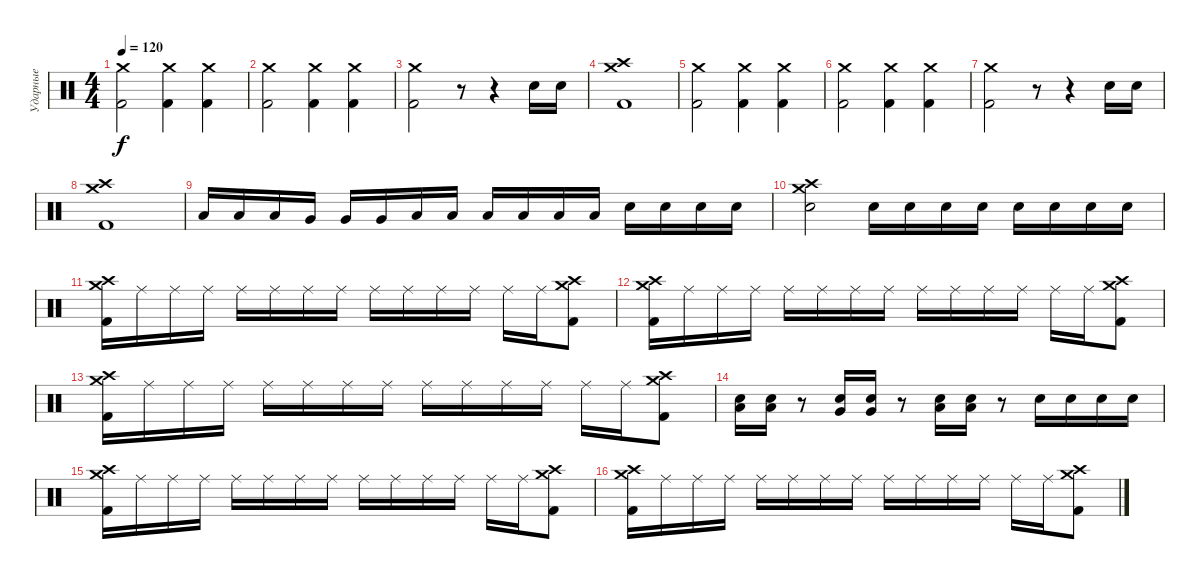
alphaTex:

\track ("Ударные" "Ударные") {instrument percussion}
\staff {score}
\articulation defaults
\ts (4 4)
\tempo 120
\clef neutral
\ks c
("Kick (hit) 2" "Crash medium (hit)").2{dy f} ("Kick (hit) 2" "Crash medium (hit)").4 ("Kick (hit) 2" "Crash medium (hit)").4 |
("Kick (hit) 2" "Crash medium (hit)").2 ("Kick (hit) 2" "Crash medium (hit)").4 ("Kick (hit) 2" "Crash medium (hit)").4 |
("Kick (hit) 2" "Crash medium (hit)").2 r.8 r.4 "Snare (hit) 2".16 "Snare (hit) 2".16 |
("Kick (hit) 2" "Crash medium (hit)" "Crash high (hit)").1 |
("Kick (hit) 2" "Crash medium (hit)").2 ("Kick (hit) 2" "Crash medium (hit)").4 ("Kick (hit) 2" "Crash medium (hit)").4 |
("Kick (hit) 2" "Crash medium (hit)").2 ("Kick (hit) 2" "Crash medium (hit)").4 ("Kick (hit) 2" "Crash medium (hit)").4 |
("Kick (hit) 2" "Crash medium (hit)").2 r.8 r.4 "Snare (hit) 2".16 "Snare (hit) 2".16 |
("Kick (hit) 2" "Crash medium (hit)" "Crash high (hit)").1 |
"Low Floor Tom (hit)".16 "Low Floor Tom (hit)".16 "Low Floor Tom (hit)".16 "Very Low Tom (hit)".16 "Very Low Tom (hit)".16 "Very Low Tom (hit)".16 "Low Floor Tom (hit)".16 "Low Floor Tom (hit)".16 "Low Floor Tom (hit)".16 "Low Tom (hit)".16 "Low Tom (hit)".16 "Low Tom (hit)".16 "Snare (hit) 2".16 "Snare (hit) 2".16 "Snare (hit) 2".16 "Snare (hit) 2".16 |
("Snare (hit) 2" "Crash medium (hit)" "Crash high (hit)").2 "Snare (hit) 2".16 "Snare (hit) 2".16 "Snare (hit) 2".16 "Snare (hit) 2".16 "Snare (hit) 2".16 "Snare (hit) 2".16 "Snare (hit) 2".16 "Snare (hit) 2".16 |
("Kick (hit) 2" "Crash medium (hit)" "Crash high (hit)").16 "Ride (middle)".16 "Ride (middle)".16 "Ride (middle)".16 "Ride (middle)".16 "Ride (middle)".16 "Ride (middle)".16 "Ride (middle)".16 "Ride (middle)".16 "Ride (middle)".16 "Ride (middle)".16 "Ride (middle)".16 "Ride (middle)".16 "Ride (middle)".16 ("Kick (hit) 2" "Crash medium (hit)" "Crash high (hit)").8 |
("Kick (hit) 2" "Crash medium (hit)" "Crash high (hit)").16 "Ride (middle)".16 "Ride (middle)".16 "Ride (middle)".16 "Ride (middle)".16 "Ride (middle)".16 "Ride (middle)".16 "Ride (middle)".16 "Ride (middle)".16 "Ride (middle)".16 "Ride (middle)".16 "Ride (middle)".16 "Ride (middle)".16 "Ride (middle)".16 ("Kick (hit) 2" "Crash medium (hit)" "Crash high (hit)").8 |
("Kick (hit) 2" "Crash medium (hit)" "Crash high (hit)").16 "Ride (middle)".16 "Ride (middle)".16 "Ride (middle)".16 "Ride (middle)".16 "Ride (middle)".16 "Ride (middle)".16 "Ride (middle)".16 "Ride (middle)".16 "Ride (middle)".16 "Ride (middle)".16 "Ride (middle)".16 "Ride (middle)".16 "Ride (middle)".16 ("Kick (hit) 2" "Crash medium (hit)" "Crash high (hit)").8 |
("Low Floor Tom (hit)" "Electric Snare (hit)").16 ("Low Floor Tom (hit)" "Electric Snare (hit)").16 r.8 ("Very Low Tom (hit)" "Electric Snare (hit)").16 ("Very Low Tom (hit)" "Electric Snare (hit)").16 r.8 ("Low Floor Tom (hit)" "Electric Snare (hit)").16 ("Low Floor Tom (hit)" "Electric Snare (hit)").16 r.8 "Snare (hit) 2".16 "Snare (hit) 2".16 "Snare (hit) 2".16 "Snare (hit) 2".16 |
("Kick (hit) 2" "Crash medium (hit)" "Crash high (hit)").16 "Ride (middle)".16 "Ride (middle)".16 "Ride (middle)".16 "Ride (middle)".16 "Ride (middle)".16 "Ride (middle)".16 "Ride (middle)".16 "Ride (middle)".16 "Ride (middle)".16 "Ride (middle)".16 "Ride (middle)".16 "Ride (middle)".16 "Ride (middle)".16 ("Kick (hit) 2" "Crash medium (hit)" "Crash high (hit)").8 |
("Kick (hit) 2" "Crash medium (hit)" "Crash high (hit)").16 "Ride (middle)".16 "Ride (middle)".16 "Ride (middle)".16 "Ride (middle)".16 "Ride (middle)".16 "Ride (middle)".16 "Ride (middle)".16 "Ride (middle)".16 "Ride (middle)".16 "Ride (middle)".16 "Ride (middle)".16 "Ride (middle)".16 "Ride (middle)".16 ("Kick (hit) 2" "Crash medium (hit)" "Crash high (hit)").8
